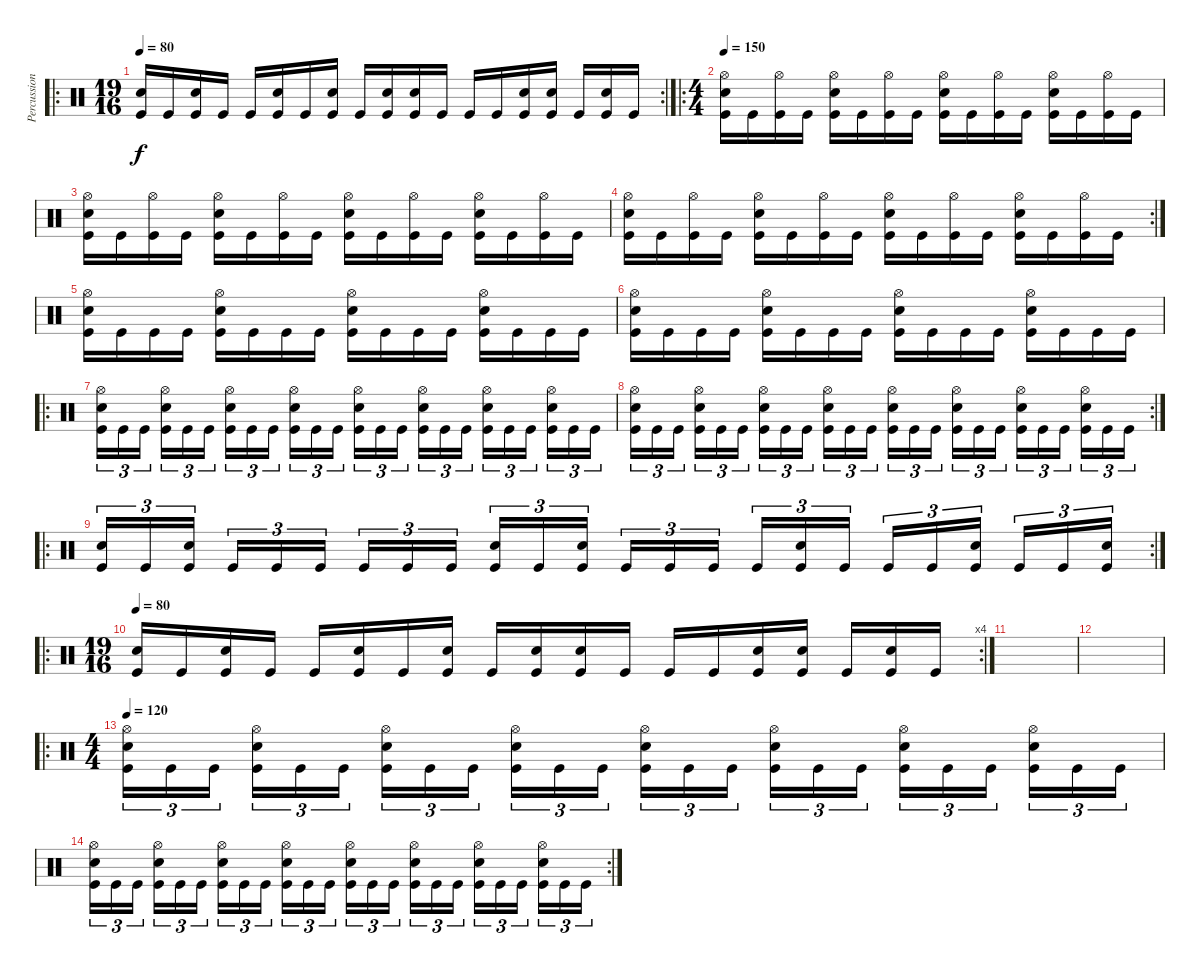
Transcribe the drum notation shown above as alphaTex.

\track ("Percussion" "Percussion") {instrument percussion}
\staff {score}
\articulation defaults
\ro
\rc 2
\ts (19 16)
\tempo 80
\clef neutral
\ks c
("Snare (hit) 2" "Kick (hit)").16{dy f} "Kick (hit)".16 ("Snare (hit) 2" "Kick (hit)").16 "Kick (hit)".16 "Kick (hit)".16 ("Snare (hit) 2" "Kick (hit)").16 "Kick (hit)".16 ("Snare (hit) 2" "Kick (hit)").16 "Kick (hit)".16 ("Snare (hit) 2" "Kick (hit)").16 ("Snare (hit) 2" "Kick (hit)").16 "Kick (hit)".16 "Kick (hit)".16 "Kick (hit)".16 ("Snare (hit) 2" "Kick (hit)").16 ("Snare (hit) 2" "Kick (hit)").16 "Kick (hit)".16 ("Snare (hit) 2" "Kick (hit)").16 "Kick (hit)".16 |
\ro
\ts (4 4)
\tempo 150
("Hi-Hat (open)" "Snare (hit) 2" "Kick (hit)").16 "Kick (hit)".16 ("Hi-Hat (open)" "Kick (hit)").16 "Kick (hit)".16 ("Hi-Hat (open)" "Snare (hit) 2" "Kick (hit)").16 "Kick (hit)".16 ("Hi-Hat (open)" "Kick (hit)").16 "Kick (hit)".16 ("Hi-Hat (open)" "Snare (hit) 2" "Kick (hit)").16 "Kick (hit)".16 ("Hi-Hat (open)" "Kick (hit)").16 "Kick (hit)".16 ("Hi-Hat (open)" "Snare (hit) 2" "Kick (hit)").16 "Kick (hit)".16 ("Hi-Hat (open)" "Kick (hit)").16 "Kick (hit)".16 |
("Hi-Hat (open)" "Snare (hit) 2" "Kick (hit)").16 "Kick (hit)".16 ("Hi-Hat (open)" "Kick (hit)").16 "Kick (hit)".16 ("Hi-Hat (open)" "Snare (hit) 2" "Kick (hit)").16 "Kick (hit)".16 ("Hi-Hat (open)" "Kick (hit)").16 "Kick (hit)".16 ("Hi-Hat (open)" "Snare (hit) 2" "Kick (hit)").16 "Kick (hit)".16 ("Hi-Hat (open)" "Kick (hit)").16 "Kick (hit)".16 ("Hi-Hat (open)" "Snare (hit) 2" "Kick (hit)").16 "Kick (hit)".16 ("Hi-Hat (open)" "Kick (hit)").16 "Kick (hit)".16 |
\rc 2
("Hi-Hat (open)" "Snare (hit) 2" "Kick (hit)").16 "Kick (hit)".16 ("Hi-Hat (open)" "Kick (hit)").16 "Kick (hit)".16 ("Hi-Hat (open)" "Snare (hit) 2" "Kick (hit)").16 "Kick (hit)".16 ("Hi-Hat (open)" "Kick (hit)").16 "Kick (hit)".16 ("Hi-Hat (open)" "Snare (hit) 2" "Kick (hit)").16 "Kick (hit)".16 ("Hi-Hat (open)" "Kick (hit)").16 "Kick (hit)".16 ("Hi-Hat (open)" "Snare (hit) 2" "Kick (hit)").16 "Kick (hit)".16 ("Hi-Hat (open)" "Kick (hit)").16 "Kick (hit)".16 |
("Hi-Hat (open)" "Snare (hit) 2" "Kick (hit)").16 "Kick (hit)".16 "Kick (hit)".16 "Kick (hit)".16 ("Hi-Hat (open)" "Snare (hit) 2" "Kick (hit)").16 "Kick (hit)".16 "Kick (hit)".16 "Kick (hit)".16 ("Hi-Hat (open)" "Snare (hit) 2" "Kick (hit)").16 "Kick (hit)".16 "Kick (hit)".16 "Kick (hit)".16 ("Hi-Hat (open)" "Snare (hit) 2" "Kick (hit)").16 "Kick (hit)".16 "Kick (hit)".16 "Kick (hit)".16 |
("Hi-Hat (open)" "Snare (hit) 2" "Kick (hit)").16 "Kick (hit)".16 "Kick (hit)".16 "Kick (hit)".16 ("Hi-Hat (open)" "Snare (hit) 2" "Kick (hit)").16 "Kick (hit)".16 "Kick (hit)".16 "Kick (hit)".16 ("Hi-Hat (open)" "Snare (hit) 2" "Kick (hit)").16 "Kick (hit)".16 "Kick (hit)".16 "Kick (hit)".16 ("Hi-Hat (open)" "Snare (hit) 2" "Kick (hit)").16 "Kick (hit)".16 "Kick (hit)".16 "Kick (hit)".16 |
\ro
("Hi-Hat (open)" "Snare (hit) 2" "Kick (hit)").16{tu (3 2)} "Kick (hit)".16{tu (3 2)} "Kick (hit)".16{tu (3 2) beam splitsecondary} ("Hi-Hat (open)" "Snare (hit) 2" "Kick (hit)").16{tu (3 2)} "Kick (hit)".16{tu (3 2)} "Kick (hit)".16{tu (3 2)} ("Hi-Hat (open)" "Snare (hit) 2" "Kick (hit)").16{tu (3 2)} "Kick (hit)".16{tu (3 2)} "Kick (hit)".16{tu (3 2) beam splitsecondary} ("Hi-Hat (open)" "Snare (hit) 2" "Kick (hit)").16{tu (3 2)} "Kick (hit)".16{tu (3 2)} "Kick (hit)".16{tu (3 2)} ("Hi-Hat (open)" "Snare (hit) 2" "Kick (hit)").16{tu (3 2)} "Kick (hit)".16{tu (3 2)} "Kick (hit)".16{tu (3 2) beam splitsecondary} ("Hi-Hat (open)" "Snare (hit) 2" "Kick (hit)").16{tu (3 2)} "Kick (hit)".16{tu (3 2)} "Kick (hit)".16{tu (3 2)} ("Hi-Hat (open)" "Snare (hit) 2" "Kick (hit)").16{tu (3 2)} "Kick (hit)".16{tu (3 2)} "Kick (hit)".16{tu (3 2) beam splitsecondary} ("Hi-Hat (open)" "Snare (hit) 2" "Kick (hit)").16{tu (3 2)} "Kick (hit)".16{tu (3 2)} "Kick (hit)".16{tu (3 2)} |
\rc 2
("Hi-Hat (open)" "Snare (hit) 2" "Kick (hit)").16{tu (3 2)} "Kick (hit)".16{tu (3 2)} "Kick (hit)".16{tu (3 2) beam splitsecondary} ("Hi-Hat (open)" "Snare (hit) 2" "Kick (hit)").16{tu (3 2)} "Kick (hit)".16{tu (3 2)} "Kick (hit)".16{tu (3 2)} ("Hi-Hat (open)" "Snare (hit) 2" "Kick (hit)").16{tu (3 2)} "Kick (hit)".16{tu (3 2)} "Kick (hit)".16{tu (3 2) beam splitsecondary} ("Hi-Hat (open)" "Snare (hit) 2" "Kick (hit)").16{tu (3 2)} "Kick (hit)".16{tu (3 2)} "Kick (hit)".16{tu (3 2)} ("Hi-Hat (open)" "Snare (hit) 2" "Kick (hit)").16{tu (3 2)} "Kick (hit)".16{tu (3 2)} "Kick (hit)".16{tu (3 2) beam splitsecondary} ("Hi-Hat (open)" "Snare (hit) 2" "Kick (hit)").16{tu (3 2)} "Kick (hit)".16{tu (3 2)} "Kick (hit)".16{tu (3 2)} ("Hi-Hat (open)" "Snare (hit) 2" "Kick (hit)").16{tu (3 2)} "Kick (hit)".16{tu (3 2)} "Kick (hit)".16{tu (3 2) beam splitsecondary} ("Hi-Hat (open)" "Snare (hit) 2" "Kick (hit)").16{tu (3 2)} "Kick (hit)".16{tu (3 2)} "Kick (hit)".16{tu (3 2)} |
\ro
\rc 2
("Snare (hit) 2" "Kick (hit)").16{tu (3 2)} "Kick (hit)".16{tu (3 2)} ("Snare (hit) 2" "Kick (hit)").16{tu (3 2) beam splitsecondary} "Kick (hit)".16{tu (3 2)} "Kick (hit)".16{tu (3 2)} "Kick (hit)".16{tu (3 2)} "Kick (hit)".16{tu (3 2)} "Kick (hit)".16{tu (3 2)} "Kick (hit)".16{tu (3 2) beam splitsecondary} ("Snare (hit) 2" "Kick (hit)").16{tu (3 2)} "Kick (hit)".16{tu (3 2)} ("Snare (hit) 2" "Kick (hit)").16{tu (3 2)} "Kick (hit)".16{tu (3 2)} "Kick (hit)".16{tu (3 2)} "Kick (hit)".16{tu (3 2) beam splitsecondary} "Kick (hit)".16{tu (3 2)} ("Snare (hit) 2" "Kick (hit)").16{tu (3 2)} "Kick (hit)".16{tu (3 2)} "Kick (hit)".16{tu (3 2)} "Kick (hit)".16{tu (3 2)} ("Snare (hit) 2" "Kick (hit)").16{tu (3 2) beam splitsecondary} "Kick (hit)".16{tu (3 2)} "Kick (hit)".16{tu (3 2)} ("Snare (hit) 2" "Kick (hit)").16{tu (3 2)} |
\ro
\rc 4
\ts (19 16)
\tempo 80
("Snare (hit) 2" "Kick (hit)").16 "Kick (hit)".16 ("Snare (hit) 2" "Kick (hit)").16 "Kick (hit)".16 "Kick (hit)".16 ("Snare (hit) 2" "Kick (hit)").16 "Kick (hit)".16 ("Snare (hit) 2" "Kick (hit)").16 "Kick (hit)".16 ("Snare (hit) 2" "Kick (hit)").16 ("Snare (hit) 2" "Kick (hit)").16 "Kick (hit)".16 "Kick (hit)".16 "Kick (hit)".16 ("Snare (hit) 2" "Kick (hit)").16 ("Snare (hit) 2" "Kick (hit)").16 "Kick (hit)".16 ("Snare (hit) 2" "Kick (hit)").16 "Kick (hit)".16 |
|
|
\ro
\ts (4 4)
\tempo 120
("Hi-Hat (open)" "Snare (hit) 2" "Kick (hit)").16{tu (3 2)} "Kick (hit)".16{tu (3 2)} "Kick (hit)".16{tu (3 2) beam splitsecondary} ("Hi-Hat (open)" "Snare (hit) 2" "Kick (hit)").16{tu (3 2)} "Kick (hit)".16{tu (3 2)} "Kick (hit)".16{tu (3 2)} ("Hi-Hat (open)" "Snare (hit) 2" "Kick (hit)").16{tu (3 2)} "Kick (hit)".16{tu (3 2)} "Kick (hit)".16{tu (3 2) beam splitsecondary} ("Hi-Hat (open)" "Snare (hit) 2" "Kick (hit)").16{tu (3 2)} "Kick (hit)".16{tu (3 2)} "Kick (hit)".16{tu (3 2)} ("Hi-Hat (open)" "Snare (hit) 2" "Kick (hit)").16{tu (3 2)} "Kick (hit)".16{tu (3 2)} "Kick (hit)".16{tu (3 2) beam splitsecondary} ("Hi-Hat (open)" "Snare (hit) 2" "Kick (hit)").16{tu (3 2)} "Kick (hit)".16{tu (3 2)} "Kick (hit)".16{tu (3 2)} ("Hi-Hat (open)" "Snare (hit) 2" "Kick (hit)").16{tu (3 2)} "Kick (hit)".16{tu (3 2)} "Kick (hit)".16{tu (3 2) beam splitsecondary} ("Hi-Hat (open)" "Snare (hit) 2" "Kick (hit)").16{tu (3 2)} "Kick (hit)".16{tu (3 2)} "Kick (hit)".16{tu (3 2)} |
\rc 2
("Hi-Hat (open)" "Snare (hit) 2" "Kick (hit)").16{tu (3 2)} "Kick (hit)".16{tu (3 2)} "Kick (hit)".16{tu (3 2) beam splitsecondary} ("Hi-Hat (open)" "Snare (hit) 2" "Kick (hit)").16{tu (3 2)} "Kick (hit)".16{tu (3 2)} "Kick (hit)".16{tu (3 2)} ("Hi-Hat (open)" "Snare (hit) 2" "Kick (hit)").16{tu (3 2)} "Kick (hit)".16{tu (3 2)} "Kick (hit)".16{tu (3 2) beam splitsecondary} ("Hi-Hat (open)" "Snare (hit) 2" "Kick (hit)").16{tu (3 2)} "Kick (hit)".16{tu (3 2)} "Kick (hit)".16{tu (3 2)} ("Hi-Hat (open)" "Snare (hit) 2" "Kick (hit)").16{tu (3 2)} "Kick (hit)".16{tu (3 2)} "Kick (hit)".16{tu (3 2) beam splitsecondary} ("Hi-Hat (open)" "Snare (hit) 2" "Kick (hit)").16{tu (3 2)} "Kick (hit)".16{tu (3 2)} "Kick (hit)".16{tu (3 2)} ("Hi-Hat (open)" "Snare (hit) 2" "Kick (hit)").16{tu (3 2)} "Kick (hit)".16{tu (3 2)} "Kick (hit)".16{tu (3 2) beam splitsecondary} ("Hi-Hat (open)" "Snare (hit) 2" "Kick (hit)").16{tu (3 2)} "Kick (hit)".16{tu (3 2)} "Kick (hit)".16{tu (3 2)}
